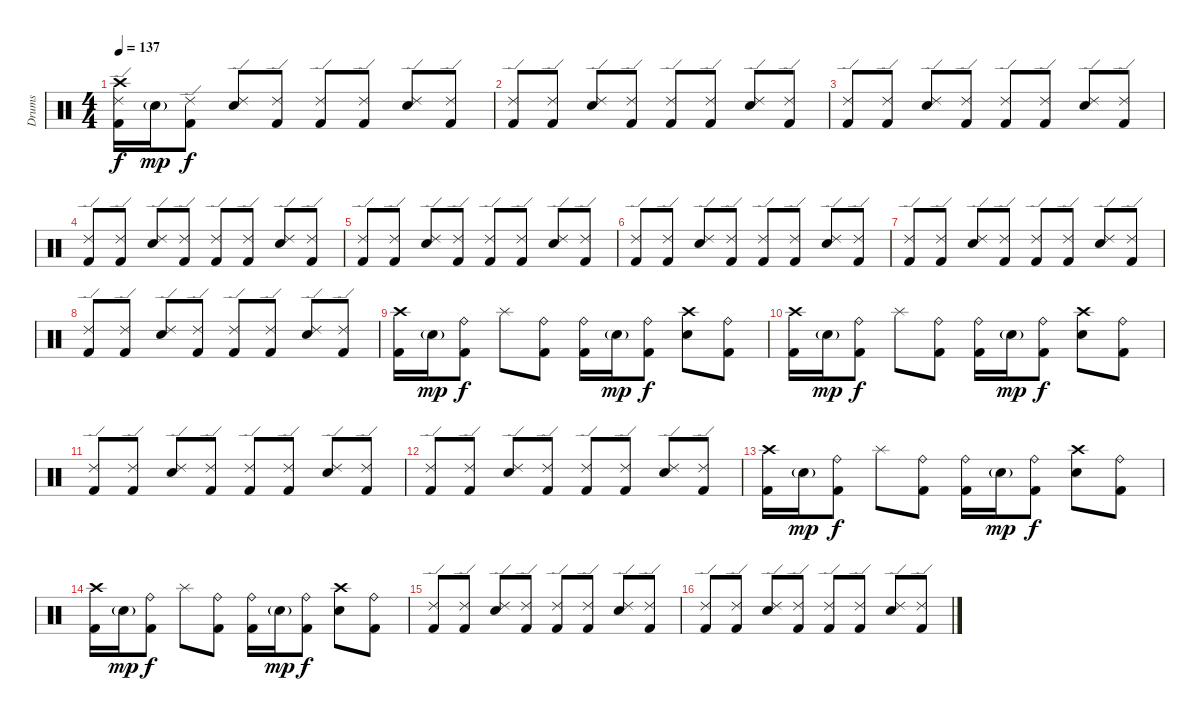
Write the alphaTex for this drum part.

\track ("Drums" "Drums") {instrument percussion}
\staff {score}
\articulation defaults
\ts (4 4)
\tempo 137
\clef neutral
\ks c
("Crash high (hit)" "Ride (edge) 2" "Kick (hit) 2").16{dy f} "Snare (hit) 2"{g}.16{dy mp} ("Ride (edge) 2" "Kick (hit) 2").8{dy f} ("Ride (edge) 2" "Snare (hit) 2").8 ("Ride (edge) 2" "Kick (hit) 2").8 ("Ride (edge) 2" "Kick (hit) 2").8 ("Ride (edge) 2" "Kick (hit) 2").8 ("Ride (edge) 2" "Snare (hit) 2").8 ("Ride (edge) 2" "Kick (hit) 2").8 |
("Ride (edge) 2" "Kick (hit) 2").8 ("Ride (edge) 2" "Kick (hit) 2").8 ("Ride (edge) 2" "Snare (hit) 2").8 ("Ride (edge) 2" "Kick (hit) 2").8 ("Ride (edge) 2" "Kick (hit) 2").8 ("Ride (edge) 2" "Kick (hit) 2").8 ("Ride (edge) 2" "Snare (hit) 2").8 ("Ride (edge) 2" "Kick (hit) 2").8 |
("Ride (edge) 2" "Kick (hit) 2").8 ("Ride (edge) 2" "Kick (hit) 2").8 ("Ride (edge) 2" "Snare (hit) 2").8 ("Ride (edge) 2" "Kick (hit) 2").8 ("Ride (edge) 2" "Kick (hit) 2").8 ("Ride (edge) 2" "Kick (hit) 2").8 ("Ride (edge) 2" "Snare (hit) 2").8 ("Ride (edge) 2" "Kick (hit) 2").8 |
("Ride (edge) 2" "Kick (hit) 2").8 ("Ride (edge) 2" "Kick (hit) 2").8 ("Ride (edge) 2" "Snare (hit) 2").8 ("Ride (edge) 2" "Kick (hit) 2").8 ("Ride (edge) 2" "Kick (hit) 2").8 ("Ride (edge) 2" "Kick (hit) 2").8 ("Ride (edge) 2" "Snare (hit) 2").8 ("Ride (edge) 2" "Kick (hit) 2").8 |
("Ride (edge) 2" "Kick (hit) 2").8 ("Ride (edge) 2" "Kick (hit) 2").8 ("Ride (edge) 2" "Snare (hit) 2").8 ("Ride (edge) 2" "Kick (hit) 2").8 ("Ride (edge) 2" "Kick (hit) 2").8 ("Ride (edge) 2" "Kick (hit) 2").8 ("Ride (edge) 2" "Snare (hit) 2").8 ("Ride (edge) 2" "Kick (hit) 2").8 |
("Ride (edge) 2" "Kick (hit) 2").8 ("Ride (edge) 2" "Kick (hit) 2").8 ("Ride (edge) 2" "Snare (hit) 2").8 ("Ride (edge) 2" "Kick (hit) 2").8 ("Ride (edge) 2" "Kick (hit) 2").8 ("Ride (edge) 2" "Kick (hit) 2").8 ("Ride (edge) 2" "Snare (hit) 2").8 ("Ride (edge) 2" "Kick (hit) 2").8 |
("Ride (edge) 2" "Kick (hit) 2").8 ("Ride (edge) 2" "Kick (hit) 2").8 ("Ride (edge) 2" "Snare (hit) 2").8 ("Ride (edge) 2" "Kick (hit) 2").8 ("Ride (edge) 2" "Kick (hit) 2").8 ("Ride (edge) 2" "Kick (hit) 2").8 ("Ride (edge) 2" "Snare (hit) 2").8 ("Ride (edge) 2" "Kick (hit) 2").8 |
("Ride (edge) 2" "Kick (hit) 2").8 ("Ride (edge) 2" "Kick (hit) 2").8 ("Ride (edge) 2" "Snare (hit) 2").8 ("Ride (edge) 2" "Kick (hit) 2").8 ("Ride (edge) 2" "Kick (hit) 2").8 ("Ride (edge) 2" "Kick (hit) 2").8 ("Ride (edge) 2" "Snare (hit) 2").8 ("Ride (edge) 2" "Kick (hit) 2").8 |
("Crash high (hit)" "Kick (hit) 2").16 "Snare (hit) 2"{g}.16{dy mp} ("Ride (bell)" "Kick (hit) 2").8{dy f} "Splash (hit)".8 ("Ride (bell)" "Kick (hit) 2").8 ("Ride (bell)" "Kick (hit) 2").16 "Snare (hit) 2"{g}.16{dy mp} ("Ride (bell)" "Kick (hit) 2").8{dy f} ("Crash high (hit)" "Snare (hit) 2").8 ("Ride (bell)" "Kick (hit) 2").8 |
("Crash high (hit)" "Kick (hit) 2").16 "Snare (hit) 2"{g}.16{dy mp} ("Ride (bell)" "Kick (hit) 2").8{dy f} "Splash (hit)".8 ("Ride (bell)" "Kick (hit) 2").8 ("Ride (bell)" "Kick (hit) 2").16 "Snare (hit) 2"{g}.16{dy mp} ("Ride (bell)" "Kick (hit) 2").8{dy f} ("Crash high (hit)" "Snare (hit) 2").8 ("Ride (bell)" "Kick (hit) 2").8 |
("Ride (edge) 2" "Kick (hit) 2").8 ("Ride (edge) 2" "Kick (hit) 2").8 ("Ride (edge) 2" "Snare (hit) 2").8 ("Ride (edge) 2" "Kick (hit) 2").8 ("Ride (edge) 2" "Kick (hit) 2").8 ("Ride (edge) 2" "Kick (hit) 2").8 ("Ride (edge) 2" "Snare (hit) 2").8 ("Ride (edge) 2" "Kick (hit) 2").8 |
("Ride (edge) 2" "Kick (hit) 2").8 ("Ride (edge) 2" "Kick (hit) 2").8 ("Ride (edge) 2" "Snare (hit) 2").8 ("Ride (edge) 2" "Kick (hit) 2").8 ("Ride (edge) 2" "Kick (hit) 2").8 ("Ride (edge) 2" "Kick (hit) 2").8 ("Ride (edge) 2" "Snare (hit) 2").8 ("Ride (edge) 2" "Kick (hit) 2").8 |
("Crash high (hit)" "Kick (hit) 2").16 "Snare (hit) 2"{g}.16{dy mp} ("Ride (bell)" "Kick (hit) 2").8{dy f} "Splash (hit)".8 ("Ride (bell)" "Kick (hit) 2").8 ("Ride (bell)" "Kick (hit) 2").16 "Snare (hit) 2"{g}.16{dy mp} ("Ride (bell)" "Kick (hit) 2").8{dy f} ("Crash high (hit)" "Snare (hit) 2").8 ("Ride (bell)" "Kick (hit) 2").8 |
("Crash high (hit)" "Kick (hit) 2").16 "Snare (hit) 2"{g}.16{dy mp} ("Ride (bell)" "Kick (hit) 2").8{dy f} "Splash (hit)".8 ("Ride (bell)" "Kick (hit) 2").8 ("Ride (bell)" "Kick (hit) 2").16 "Snare (hit) 2"{g}.16{dy mp} ("Ride (bell)" "Kick (hit) 2").8{dy f} ("Crash high (hit)" "Snare (hit) 2").8 ("Ride (bell)" "Kick (hit) 2").8 |
("Ride (edge) 2" "Kick (hit) 2").8 ("Ride (edge) 2" "Kick (hit) 2").8 ("Ride (edge) 2" "Snare (hit) 2").8 ("Ride (edge) 2" "Kick (hit) 2").8 ("Ride (edge) 2" "Kick (hit) 2").8 ("Ride (edge) 2" "Kick (hit) 2").8 ("Ride (edge) 2" "Snare (hit) 2").8 ("Ride (edge) 2" "Kick (hit) 2").8 |
("Ride (edge) 2" "Kick (hit) 2").8 ("Ride (edge) 2" "Kick (hit) 2").8 ("Ride (edge) 2" "Snare (hit) 2").8 ("Ride (edge) 2" "Kick (hit) 2").8 ("Ride (edge) 2" "Kick (hit) 2").8 ("Ride (edge) 2" "Kick (hit) 2").8 ("Ride (edge) 2" "Snare (hit) 2").8 ("Ride (edge) 2" "Kick (hit) 2").8
